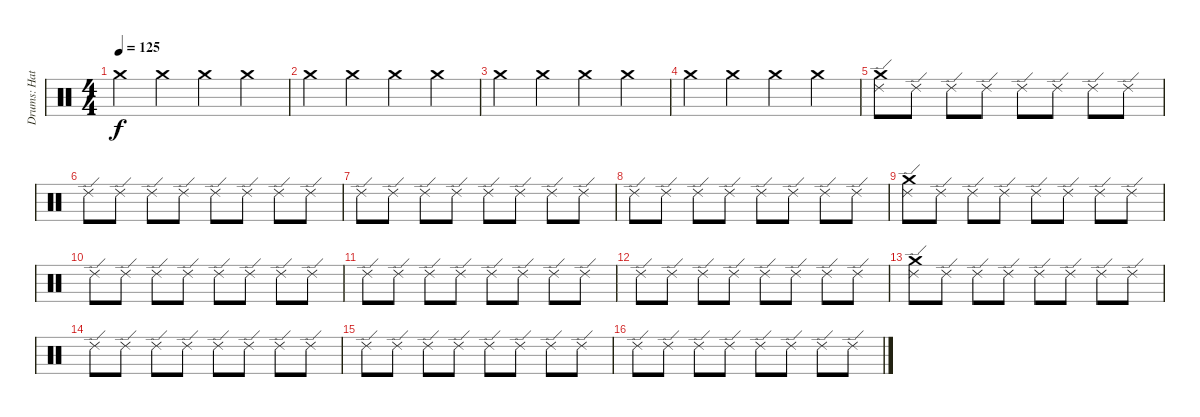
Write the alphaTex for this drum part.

\track ("Drums: Hats, Etc" "Drums: Hat") {instrument percussion}
\staff {score}
\articulation defaults
\ts (4 4)
\tempo 125
\clef neutral
\ks c "Crash medium (hit)".4{dy f} "Crash medium (hit)".4 "Crash medium (hit)".4 "Crash medium (hit)".4
|
"Crash medium (hit)".4 "Crash medium (hit)".4 "Crash medium (hit)".4 "Crash medium (hit)".4 |
"Crash medium (hit)".4 "Crash medium (hit)".4 "Crash medium (hit)".4 "Crash medium (hit)".4 |
"Crash medium (hit)".4 "Crash medium (hit)".4 "Crash medium (hit)".4 "Crash medium (hit)".4 |
("Ride (edge) 2" "Crash medium (hit)").8 "Ride (edge) 2".8 "Ride (edge) 2".8 "Ride (edge) 2".8 "Ride (edge) 2".8 "Ride (edge) 2".8 "Ride (edge) 2".8 "Ride (edge) 2".8 |
"Ride (edge) 2".8 "Ride (edge) 2".8 "Ride (edge) 2".8 "Ride (edge) 2".8 "Ride (edge) 2".8 "Ride (edge) 2".8 "Ride (edge) 2".8 "Ride (edge) 2".8 |
"Ride (edge) 2".8 "Ride (edge) 2".8 "Ride (edge) 2".8 "Ride (edge) 2".8 "Ride (edge) 2".8 "Ride (edge) 2".8 "Ride (edge) 2".8 "Ride (edge) 2".8 |
"Ride (edge) 2".8 "Ride (edge) 2".8 "Ride (edge) 2".8 "Ride (edge) 2".8 "Ride (edge) 2".8 "Ride (edge) 2".8 "Ride (edge) 2".8 "Ride (edge) 2".8 |
("Ride (edge) 2" "Crash medium (hit)").8 "Ride (edge) 2".8 "Ride (edge) 2".8 "Ride (edge) 2".8 "Ride (edge) 2".8 "Ride (edge) 2".8 "Ride (edge) 2".8 "Ride (edge) 2".8 |
"Ride (edge) 2".8 "Ride (edge) 2".8 "Ride (edge) 2".8 "Ride (edge) 2".8 "Ride (edge) 2".8 "Ride (edge) 2".8 "Ride (edge) 2".8 "Ride (edge) 2".8 |
"Ride (edge) 2".8 "Ride (edge) 2".8 "Ride (edge) 2".8 "Ride (edge) 2".8 "Ride (edge) 2".8 "Ride (edge) 2".8 "Ride (edge) 2".8 "Ride (edge) 2".8 |
"Ride (edge) 2".8 "Ride (edge) 2".8 "Ride (edge) 2".8 "Ride (edge) 2".8 "Ride (edge) 2".8 "Ride (edge) 2".8 "Ride (edge) 2".8 "Ride (edge) 2".8 |
("Ride (edge) 2" "Crash medium (hit)").8 "Ride (edge) 2".8 "Ride (edge) 2".8 "Ride (edge) 2".8 "Ride (edge) 2".8 "Ride (edge) 2".8 "Ride (edge) 2".8 "Ride (edge) 2".8 |
"Ride (edge) 2".8 "Ride (edge) 2".8 "Ride (edge) 2".8 "Ride (edge) 2".8 "Ride (edge) 2".8 "Ride (edge) 2".8 "Ride (edge) 2".8 "Ride (edge) 2".8 |
"Ride (edge) 2".8 "Ride (edge) 2".8 "Ride (edge) 2".8 "Ride (edge) 2".8 "Ride (edge) 2".8 "Ride (edge) 2".8 "Ride (edge) 2".8 "Ride (edge) 2".8 |
"Ride (edge) 2".8 "Ride (edge) 2".8 "Ride (edge) 2".8 "Ride (edge) 2".8 "Ride (edge) 2".8 "Ride (edge) 2".8 "Ride (edge) 2".8 "Ride (edge) 2".8
